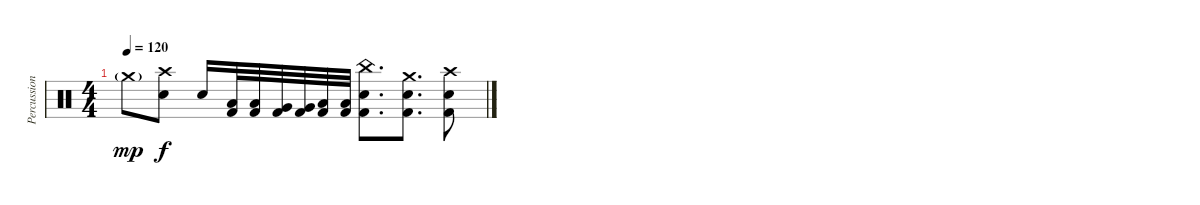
\track ("Percussion" "Percussion") {instrument percussion}
\staff {score}
\articulation defaults
\ts (4 4)
\tempo 120
\clef neutral
\ks c "Crash medium (hit)"{g}.8{dy mp}
("Crash high (hit)" "Electric Snare (hit)").8{dy f} "Electric Snare (hit)".16 ("Low Tom (hit)" "Kick (hit) 2").32 ("Low Tom (hit)" "Kick (hit) 2").32 ("Very Low Tom (hit)" "Kick (hit) 2").32 ("Very Low Tom (hit)" "Kick (hit) 2").32 ("Low Floor Tom (hit)" "Kick (hit) 2").32 ("Low Floor Tom (hit)" "Kick (hit) 2").32 ("China (hit)" "Electric Snare (hit)" "Kick (hit) 2").8{d} ("Crash medium (hit)" "Electric Snare (hit)" "Kick (hit) 2").8{d} ("Crash high (hit)" "Electric Snare (hit)" "Kick (hit) 2").8
